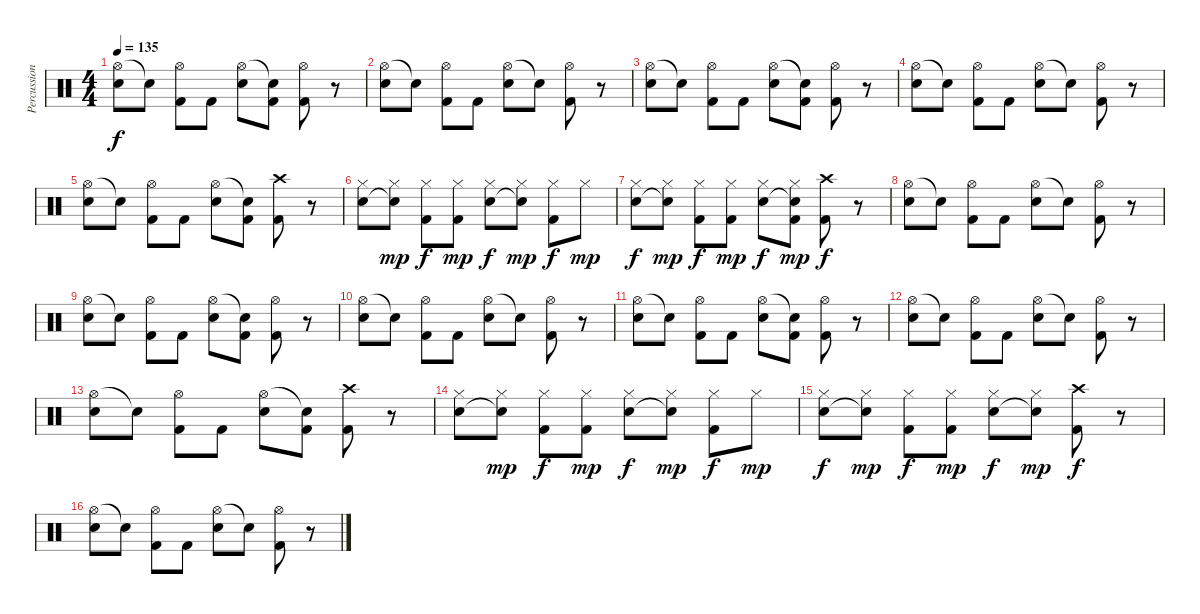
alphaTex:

\track ("Percussion" "Percussion") {instrument percussion}
\staff {score}
\articulation defaults
\ts (4 4)
\tempo 135
\clef neutral
\ks c
("Hi-Hat (open)" "Electric Snare (hit)").8{dy f} "Electric Snare (hit)"{t}.8 ("Hi-Hat (open)" "Kick (hit) 2").8 "Kick (hit) 2".8 ("Hi-Hat (open)" "Electric Snare (hit)").8 ("Electric Snare (hit)"{t} "Kick (hit) 2").8 ("Hi-Hat (open)" "Kick (hit) 2").8 r.8 |
("Hi-Hat (open)" "Electric Snare (hit)").8 "Electric Snare (hit)"{t}.8 ("Hi-Hat (open)" "Kick (hit) 2").8 "Kick (hit) 2".8 ("Hi-Hat (open)" "Electric Snare (hit)").8 "Electric Snare (hit)"{t}.8 ("Hi-Hat (open)" "Kick (hit) 2").8 r.8 |
("Hi-Hat (open)" "Electric Snare (hit)").8 "Electric Snare (hit)"{t}.8 ("Hi-Hat (open)" "Kick (hit) 2").8 "Kick (hit) 2".8 ("Hi-Hat (open)" "Electric Snare (hit)").8 ("Electric Snare (hit)"{t} "Kick (hit) 2").8 ("Hi-Hat (open)" "Kick (hit) 2").8 r.8 |
("Hi-Hat (open)" "Electric Snare (hit)").8 "Electric Snare (hit)"{t}.8 ("Hi-Hat (open)" "Kick (hit) 2").8 "Kick (hit) 2".8 ("Hi-Hat (open)" "Electric Snare (hit)").8 "Electric Snare (hit)"{t}.8 ("Hi-Hat (open)" "Kick (hit) 2").8 r.8 |
("Hi-Hat (open)" "Electric Snare (hit)").8 "Electric Snare (hit)"{t}.8 ("Hi-Hat (open)" "Kick (hit) 2").8 "Kick (hit) 2".8 ("Hi-Hat (open)" "Electric Snare (hit)").8 ("Electric Snare (hit)"{t} "Kick (hit) 2").8 ("Crash high (hit)" "Kick (hit) 2").8 r.8 |
("Hi-Hat (closed)" "Electric Snare (hit)").8 ("Hi-Hat (closed)" "Electric Snare (hit)"{t}).8{dy mp} ("Hi-Hat (closed)" "Kick (hit) 2").8{dy f} ("Hi-Hat (closed)" "Kick (hit) 2").8{dy mp} ("Hi-Hat (closed)" "Electric Snare (hit)").8{dy f} ("Hi-Hat (closed)" "Electric Snare (hit)"{t}).8{dy mp} ("Hi-Hat (closed)" "Kick (hit) 2").8{dy f} "Hi-Hat (closed)".8{dy mp} |
("Hi-Hat (closed)" "Electric Snare (hit)").8{dy f} ("Hi-Hat (closed)" "Electric Snare (hit)"{t}).8{dy mp} ("Hi-Hat (closed)" "Kick (hit) 2").8{dy f} ("Hi-Hat (closed)" "Kick (hit) 2").8{dy mp} ("Hi-Hat (closed)" "Electric Snare (hit)").8{dy f} ("Hi-Hat (closed)" "Electric Snare (hit)"{t} "Kick (hit) 2").8{dy mp} ("Crash high (hit)" "Kick (hit) 2").8{dy f} r.8 |
("Hi-Hat (open)" "Electric Snare (hit)").8 "Electric Snare (hit)"{t}.8 ("Hi-Hat (open)" "Kick (hit) 2").8 "Kick (hit) 2".8 ("Hi-Hat (open)" "Electric Snare (hit)").8 "Electric Snare (hit)"{t}.8 ("Hi-Hat (open)" "Kick (hit) 2").8 r.8 |
("Hi-Hat (open)" "Electric Snare (hit)").8 "Electric Snare (hit)"{t}.8 ("Hi-Hat (open)" "Kick (hit) 2").8 "Kick (hit) 2".8 ("Hi-Hat (open)" "Electric Snare (hit)").8 ("Electric Snare (hit)"{t} "Kick (hit) 2").8 ("Hi-Hat (open)" "Kick (hit) 2").8 r.8 |
("Hi-Hat (open)" "Electric Snare (hit)").8 "Electric Snare (hit)"{t}.8 ("Hi-Hat (open)" "Kick (hit) 2").8 "Kick (hit) 2".8 ("Hi-Hat (open)" "Electric Snare (hit)").8 "Electric Snare (hit)"{t}.8 ("Hi-Hat (open)" "Kick (hit) 2").8 r.8 |
("Hi-Hat (open)" "Electric Snare (hit)").8 "Electric Snare (hit)"{t}.8 ("Hi-Hat (open)" "Kick (hit) 2").8 "Kick (hit) 2".8 ("Hi-Hat (open)" "Electric Snare (hit)").8 ("Electric Snare (hit)"{t} "Kick (hit) 2").8 ("Hi-Hat (open)" "Kick (hit) 2").8 r.8 |
("Hi-Hat (open)" "Electric Snare (hit)").8 "Electric Snare (hit)"{t}.8 ("Hi-Hat (open)" "Kick (hit) 2").8 "Kick (hit) 2".8 ("Hi-Hat (open)" "Electric Snare (hit)").8 "Electric Snare (hit)"{t}.8 ("Hi-Hat (open)" "Kick (hit) 2").8 r.8 |
("Hi-Hat (open)" "Electric Snare (hit)").8 "Electric Snare (hit)"{t}.8 ("Hi-Hat (open)" "Kick (hit) 2").8 "Kick (hit) 2".8 ("Hi-Hat (open)" "Electric Snare (hit)").8 ("Electric Snare (hit)"{t} "Kick (hit) 2").8 ("Crash high (hit)" "Kick (hit) 2").8 r.8 |
("Hi-Hat (closed)" "Electric Snare (hit)").8 ("Hi-Hat (closed)" "Electric Snare (hit)"{t}).8{dy mp} ("Hi-Hat (closed)" "Kick (hit) 2").8{dy f} ("Hi-Hat (closed)" "Kick (hit) 2").8{dy mp} ("Hi-Hat (closed)" "Electric Snare (hit)").8{dy f} ("Hi-Hat (closed)" "Electric Snare (hit)"{t}).8{dy mp} ("Hi-Hat (closed)" "Kick (hit) 2").8{dy f} "Hi-Hat (closed)".8{dy mp} |
("Hi-Hat (closed)" "Electric Snare (hit)").8{dy f} ("Hi-Hat (closed)" "Electric Snare (hit)"{t}).8{dy mp} ("Hi-Hat (closed)" "Kick (hit) 2").8{dy f} ("Hi-Hat (closed)" "Kick (hit) 2").8{dy mp} ("Hi-Hat (closed)" "Electric Snare (hit)").8{dy f} ("Hi-Hat (closed)" "Electric Snare (hit)"{t}).8{dy mp} ("Crash high (hit)" "Kick (hit) 2").8{dy f} r.8 |
("Hi-Hat (open)" "Electric Snare (hit)").8 "Electric Snare (hit)"{t}.8 ("Hi-Hat (open)" "Kick (hit) 2").8 "Kick (hit) 2".8 ("Hi-Hat (open)" "Electric Snare (hit)").8 "Electric Snare (hit)"{t}.8 ("Hi-Hat (open)" "Kick (hit) 2").8 r.8
